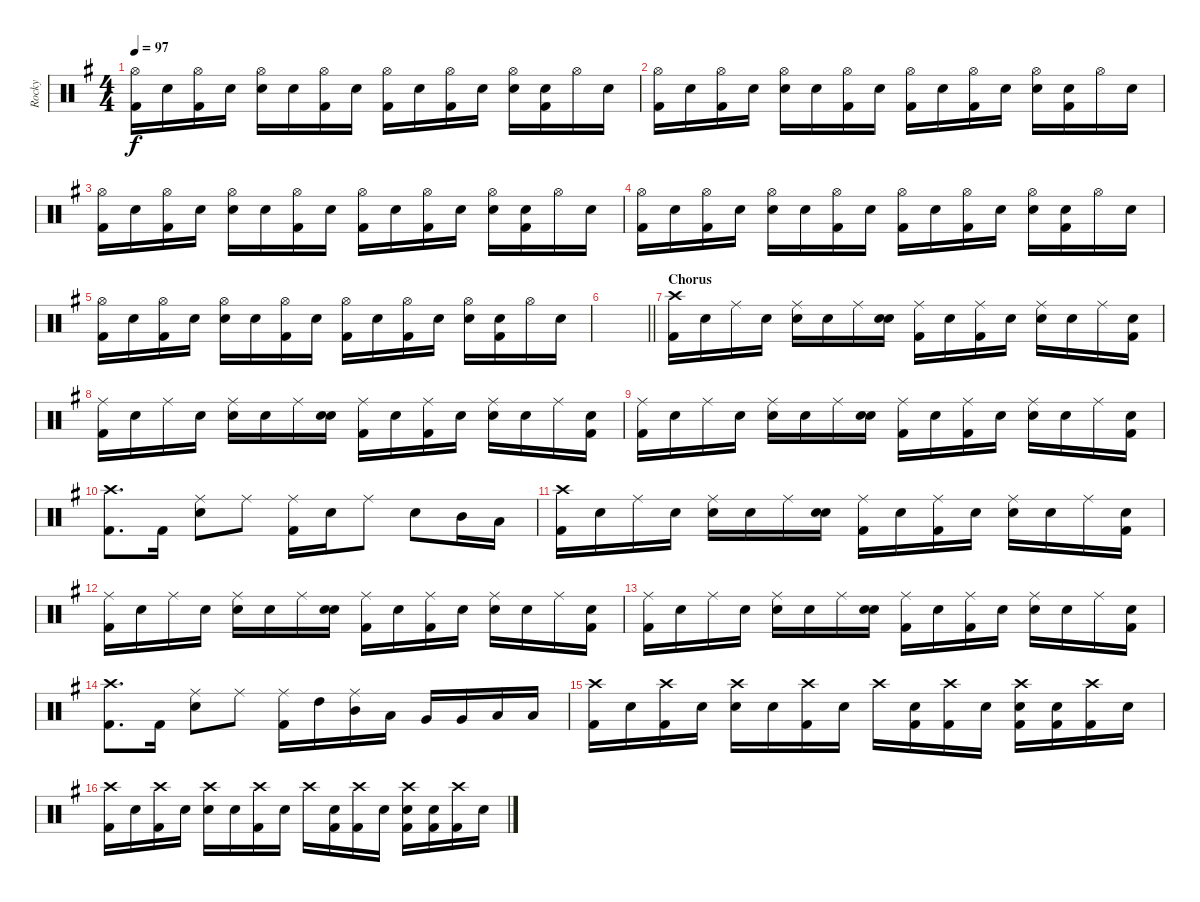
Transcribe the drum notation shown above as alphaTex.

\track ("Rocky" "Rocky") {instrument percussion}
\staff {score}
\articulation defaults
\ts (4 4)
\tempo 97
\clef neutral
\ks g
("Hi-Hat (open)" "Kick (hit) 2").16{dy f} "Snare (hit)".16 ("Hi-Hat (open)" "Kick (hit) 2").16 "Snare (hit)".16 ("Hi-Hat (open)" "Snare (hit) 2").16 "Snare (hit)".16 ("Hi-Hat (open)" "Kick (hit) 2").16 "Snare (hit)".16 ("Hi-Hat (open)" "Kick (hit) 2").16 "Snare (hit)".16 ("Hi-Hat (open)" "Kick (hit) 2").16 "Snare (hit)".16 ("Hi-Hat (open)" "Snare (hit) 2").16 ("Snare (hit)" "Kick (hit) 2").16 "Hi-Hat (open)".16 "Snare (hit)".16 |
("Hi-Hat (open)" "Kick (hit) 2").16 "Snare (hit)".16 ("Hi-Hat (open)" "Kick (hit) 2").16 "Snare (hit)".16 ("Hi-Hat (open)" "Snare (hit) 2").16 "Snare (hit)".16 ("Hi-Hat (open)" "Kick (hit) 2").16 "Snare (hit)".16 ("Hi-Hat (open)" "Kick (hit) 2").16 "Snare (hit)".16 ("Hi-Hat (open)" "Kick (hit) 2").16 "Snare (hit)".16 ("Hi-Hat (open)" "Snare (hit) 2").16 ("Snare (hit)" "Kick (hit) 2").16 "Hi-Hat (open)".16 "Snare (hit)".16 |
("Hi-Hat (open)" "Kick (hit) 2").16 "Snare (hit)".16 ("Hi-Hat (open)" "Kick (hit) 2").16 "Snare (hit)".16 ("Hi-Hat (open)" "Snare (hit) 2").16 "Snare (hit)".16 ("Hi-Hat (open)" "Kick (hit) 2").16 "Snare (hit)".16 ("Hi-Hat (open)" "Kick (hit) 2").16 "Snare (hit)".16 ("Hi-Hat (open)" "Kick (hit) 2").16 "Snare (hit)".16 ("Hi-Hat (open)" "Snare (hit) 2").16 ("Snare (hit)" "Kick (hit) 2").16 "Hi-Hat (open)".16 "Snare (hit)".16 |
("Hi-Hat (open)" "Kick (hit) 2").16 "Snare (hit)".16 ("Hi-Hat (open)" "Kick (hit) 2").16 "Snare (hit)".16 ("Hi-Hat (open)" "Snare (hit) 2").16 "Snare (hit)".16 ("Hi-Hat (open)" "Kick (hit) 2").16 "Snare (hit)".16 ("Hi-Hat (open)" "Kick (hit) 2").16 "Snare (hit)".16 ("Hi-Hat (open)" "Kick (hit) 2").16 "Snare (hit)".16 ("Hi-Hat (open)" "Snare (hit) 2").16 ("Snare (hit)" "Kick (hit) 2").16 "Hi-Hat (open)".16 "Snare (hit)".16 |
("Hi-Hat (open)" "Kick (hit) 2").16 "Snare (hit)".16 ("Hi-Hat (open)" "Kick (hit) 2").16 "Snare (hit)".16 ("Hi-Hat (open)" "Snare (hit) 2").16 "Snare (hit)".16 ("Hi-Hat (open)" "Kick (hit) 2").16 "Snare (hit)".16 ("Hi-Hat (open)" "Kick (hit) 2").16 "Snare (hit)".16 ("Hi-Hat (open)" "Kick (hit) 2").16 "Snare (hit)".16 ("Hi-Hat (open)" "Snare (hit) 2").16 ("Snare (hit)" "Kick (hit) 2").16 "Hi-Hat (open)".16 "Snare (hit)".16 |
\barLineRight lightlight
|
\section ("" "Chorus")
("Crash high (hit)" "Kick (hit) 2").16 "Snare (hit)".16 "Ride (middle)".16 "Snare (hit)".16 ("Ride (middle)" "Snare (hit) 2").16 "Snare (hit)".16 "Ride (middle)".16 ("Snare (hit)" "Snare (hit) 2").16 ("Ride (middle)" "Kick (hit) 2").16 "Snare (hit)".16 ("Ride (middle)" "Kick (hit) 2").16 "Snare (hit)".16 ("Ride (middle)" "Snare (hit) 2").16 "Snare (hit)".16 "Ride (middle)".16 ("Snare (hit)" "Kick (hit) 2").16 |
("Ride (middle)" "Kick (hit) 2").16 "Snare (hit)".16 "Ride (middle)".16 "Snare (hit)".16 ("Ride (middle)" "Snare (hit) 2").16 "Snare (hit)".16 "Ride (middle)".16 ("Snare (hit)" "Snare (hit) 2").16 ("Ride (middle)" "Kick (hit) 2").16 "Snare (hit)".16 ("Ride (middle)" "Kick (hit) 2").16 "Snare (hit)".16 ("Ride (middle)" "Snare (hit) 2").16 "Snare (hit)".16 "Ride (middle)".16 ("Snare (hit)" "Kick (hit) 2").16 |
("Ride (middle)" "Kick (hit) 2").16 "Snare (hit)".16 "Ride (middle)".16 "Snare (hit)".16 ("Ride (middle)" "Snare (hit) 2").16 "Snare (hit)".16 "Ride (middle)".16 ("Snare (hit)" "Snare (hit) 2").16 ("Ride (middle)" "Kick (hit) 2").16 "Snare (hit)".16 ("Ride (middle)" "Kick (hit) 2").16 "Snare (hit)".16 ("Ride (middle)" "Snare (hit) 2").16 "Snare (hit)".16 "Ride (middle)".16 ("Snare (hit)" "Kick (hit) 2").16 |
("Crash high (hit)" "Kick (hit) 2").8{d} "Kick (hit) 2".16 ("Ride (middle)" "Snare (hit) 2").8 "Ride (middle)".8 ("Ride (middle)" "Kick (hit) 2").16 "Snare (hit) 2".16 "Ride (middle)".8 "Snare (hit) 2".8 "Mid Tom (hit)".16 "Low Tom (hit)".16 |
("Crash high (hit)" "Kick (hit) 2").16 "Snare (hit)".16 "Ride (middle)".16 "Snare (hit)".16 ("Ride (middle)" "Snare (hit) 2").16 "Snare (hit)".16 "Ride (middle)".16 ("Snare (hit)" "Snare (hit) 2").16 ("Ride (middle)" "Kick (hit) 2").16 "Snare (hit)".16 ("Ride (middle)" "Kick (hit) 2").16 "Snare (hit)".16 ("Ride (middle)" "Snare (hit) 2").16 "Snare (hit)".16 "Ride (middle)".16 ("Snare (hit)" "Kick (hit) 2").16 |
("Ride (middle)" "Kick (hit) 2").16 "Snare (hit)".16 "Ride (middle)".16 "Snare (hit)".16 ("Ride (middle)" "Snare (hit) 2").16 "Snare (hit)".16 "Ride (middle)".16 ("Snare (hit)" "Snare (hit) 2").16 ("Ride (middle)" "Kick (hit) 2").16 "Snare (hit)".16 ("Ride (middle)" "Kick (hit) 2").16 "Snare (hit)".16 ("Ride (middle)" "Snare (hit) 2").16 "Snare (hit)".16 "Ride (middle)".16 ("Snare (hit)" "Kick (hit) 2").16 |
("Ride (middle)" "Kick (hit) 2").16 "Snare (hit)".16 "Ride (middle)".16 "Snare (hit)".16 ("Ride (middle)" "Snare (hit) 2").16 "Snare (hit)".16 "Ride (middle)".16 ("Snare (hit)" "Snare (hit) 2").16 ("Ride (middle)" "Kick (hit) 2").16 "Snare (hit)".16 ("Ride (middle)" "Kick (hit) 2").16 "Snare (hit)".16 ("Ride (middle)" "Snare (hit) 2").16 "Snare (hit)".16 "Ride (middle)".16 ("Snare (hit)" "Kick (hit) 2").16 |
("Crash high (hit)" "Kick (hit) 2").8{d} "Kick (hit) 2".16 ("Ride (middle)" "Snare (hit) 2").8 "Ride (middle)".8 ("Ride (middle)" "Kick (hit) 2").16 "High Tom (hit)".16 ("Ride (middle)" "Mid Tom (hit)").16 "Low Tom (hit)".16 "Very Low Tom (hit)".16 "Very Low Tom (hit)".16 "Low Floor Tom (hit)".16 "Low Floor Tom (hit)".16 |
("Crash high (hit)" "Kick (hit) 2").16 "Snare (hit)".16 ("Crash high (hit)" "Kick (hit) 2").16 "Snare (hit)".16 ("Crash high (hit)" "Snare (hit) 2").16 "Snare (hit)".16 ("Crash high (hit)" "Kick (hit) 2").16 "Snare (hit)".16 "Crash high (hit)".16 ("Snare (hit)" "Kick (hit) 2").16 ("Crash high (hit)" "Kick (hit) 2").16 "Snare (hit)".16 ("Crash high (hit)" "Snare (hit) 2" "Kick (hit) 2").16 ("Snare (hit)" "Kick (hit) 2").16 ("Crash high (hit)" "Kick (hit) 2").16 "Snare (hit)".16 |
("Crash high (hit)" "Kick (hit) 2").16 "Snare (hit)".16 ("Crash high (hit)" "Kick (hit) 2").16 "Snare (hit)".16 ("Crash high (hit)" "Snare (hit) 2").16 "Snare (hit)".16 ("Crash high (hit)" "Kick (hit) 2").16 "Snare (hit)".16 "Crash high (hit)".16 ("Snare (hit)" "Kick (hit) 2").16 ("Crash high (hit)" "Kick (hit) 2").16 "Snare (hit)".16 ("Crash high (hit)" "Snare (hit) 2" "Kick (hit) 2").16 ("Snare (hit)" "Kick (hit) 2").16 ("Crash high (hit)" "Kick (hit) 2").16 "Snare (hit)".16
